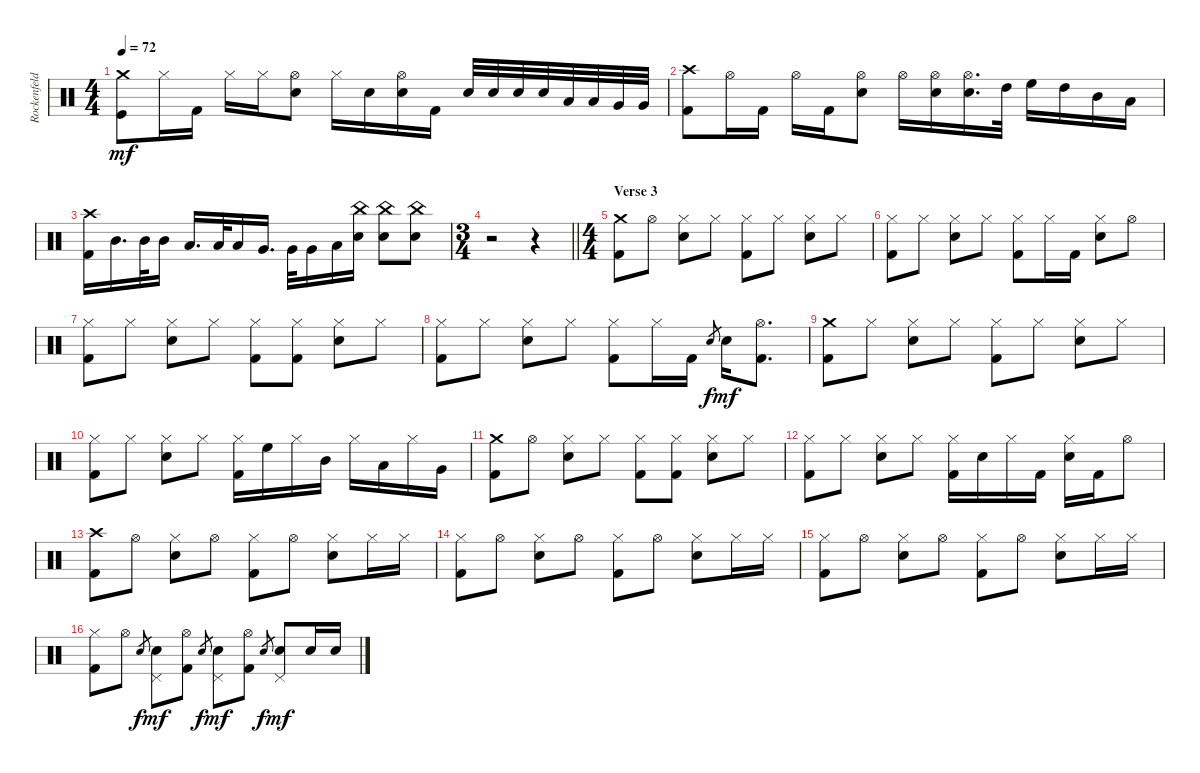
\track ("Rockenfeld" "Rockenfeld") {instrument percussion}
\staff {score}
\articulation defaults
\ts (4 4)
\tempo 72
\clef neutral
\ks c
("Crash medium (hit)" "Kick (hit)").8{dy mf} "Hi-Hat (closed)".16 "Kick (hit) 2".16 "Hi-Hat (closed)".16 "Hi-Hat (closed)".16 ("Hi-Hat (open)" "Electric Snare (hit)").8 "Hi-Hat (closed)".16 "Electric Snare (hit)".16 ("Hi-Hat (open)" "Electric Snare (hit)").16 "Kick (hit) 2".16 "Electric Snare (hit)".32 "Electric Snare (hit)".32 "Electric Snare (hit)".32 "Electric Snare (hit)".32 "Low Tom (hit)".32 "Low Tom (hit)".32 "Very Low Tom (hit)".32 "Very Low Tom (hit)".32 |
("Crash high (hit)" "Kick (hit) 2").8 "Hi-Hat (open)".16 "Kick (hit) 2".16 "Hi-Hat (open)".16 "Kick (hit) 2".16 ("Hi-Hat (open)" "Electric Snare (hit)").8 "Hi-Hat (open)".16 ("Hi-Hat (open)" "Electric Snare (hit)").16 ("Hi-Hat (open)" "Electric Snare (hit)").16{d} "High Tom (hit)".32 "High Floor Tom (hit)".16 "High Tom (hit)".16 "Mid Tom (hit)".16 "Low Tom (hit)".16 |
("Crash high (hit)" "Kick (hit) 2").16 "Mid Tom (hit)".16{d} "Mid Tom (hit)".32 "Mid Tom (hit)".16 "Low Tom (hit)".16{d} "Low Tom (hit)".32 "Low Tom (hit)".16 "Very Low Tom (hit)".16{d} "Very Low Tom (hit)".32 "Very Low Tom (hit)".16 "Low Floor Tom (hit)".16 ("China (hit)" "Electric Snare (hit)").16 ("China (hit)" "Electric Snare (hit)").8 ("China (hit)" "Electric Snare (hit)").8 |
\ts (3 4)
\barLineRight lightlight
r.2 r.4 |
\ts (4 4)
\section ("" "Verse 3")
("Crash medium (hit)" "Kick (hit) 2").8 "Hi-Hat (open)".8 ("Hi-Hat (closed)" "Electric Snare (hit)").8 "Hi-Hat (closed)".8 ("Hi-Hat (closed)" "Kick (hit) 2").8 "Hi-Hat (closed)".8 ("Hi-Hat (closed)" "Electric Snare (hit)").8 "Hi-Hat (closed)".8 |
("Hi-Hat (closed)" "Kick (hit) 2").8 "Hi-Hat (closed)".8 ("Hi-Hat (closed)" "Electric Snare (hit)").8 "Hi-Hat (closed)".8 ("Hi-Hat (closed)" "Kick (hit) 2").8 "Hi-Hat (closed)".16 "Kick (hit) 2".16 ("Hi-Hat (closed)" "Electric Snare (hit)").8 "Hi-Hat (open)".8 |
("Hi-Hat (closed)" "Kick (hit) 2").8 "Hi-Hat (closed)".8 ("Hi-Hat (closed)" "Electric Snare (hit)").8 "Hi-Hat (closed)".8 ("Hi-Hat (closed)" "Kick (hit) 2").8 ("Hi-Hat (closed)" "Kick (hit) 2").8 ("Hi-Hat (closed)" "Electric Snare (hit)").8 "Hi-Hat (closed)".8 |
("Hi-Hat (closed)" "Kick (hit) 2").8 "Hi-Hat (closed)".8 ("Hi-Hat (closed)" "Electric Snare (hit)").8 "Hi-Hat (closed)".8 ("Hi-Hat (closed)" "Kick (hit) 2").8 "Hi-Hat (closed)".16 "Kick (hit) 2".16 "Electric Snare (hit)".8{gr dy f} "Electric Snare (hit)".16{dy mf} ("Hi-Hat (open)" "Kick (hit) 2").8{d} |
("Crash medium (hit)" "Kick (hit) 2").8 "Hi-Hat (closed)".8 ("Hi-Hat (closed)" "Electric Snare (hit)").8 "Hi-Hat (closed)".8 ("Hi-Hat (closed)" "Kick (hit) 2").8 "Hi-Hat (closed)".8 ("Hi-Hat (closed)" "Electric Snare (hit)").8 "Hi-Hat (closed)".8 |
("Hi-Hat (closed)" "Kick (hit) 2").8 "Hi-Hat (closed)".8 ("Hi-Hat (closed)" "Electric Snare (hit)").8 "Hi-Hat (closed)".8 ("Hi-Hat (closed)" "Kick (hit) 2").16 "High Floor Tom (hit)".16 "Hi-Hat (closed)".16 "Mid Tom (hit)".16 "Hi-Hat (closed)".16 "Low Tom (hit)".16 "Hi-Hat (closed)".16 "Very Low Tom (hit)".16 |
("Crash medium (hit)" "Kick (hit) 2").8 "Hi-Hat (open)".8 ("Hi-Hat (closed)" "Electric Snare (hit)").8 "Hi-Hat (closed)".8 ("Hi-Hat (closed)" "Kick (hit) 2").8 ("Hi-Hat (closed)" "Kick (hit) 2").8 ("Hi-Hat (closed)" "Electric Snare (hit)").8 "Hi-Hat (closed)".8 |
("Hi-Hat (closed)" "Kick (hit) 2").8 "Hi-Hat (closed)".8 ("Hi-Hat (closed)" "Electric Snare (hit)").8 "Hi-Hat (closed)".8 ("Hi-Hat (closed)" "Kick (hit) 2").16 "Electric Snare (hit)".16 "Hi-Hat (closed)".16 "Kick (hit) 2".16 ("Hi-Hat (closed)" "Electric Snare (hit)").16 "Kick (hit) 2".16 "Hi-Hat (open)".8 |
("Crash high (hit)" "Kick (hit) 2").8 "Hi-Hat (open)".8 ("Hi-Hat (closed)" "Electric Snare (hit)").8 "Hi-Hat (open)".8 ("Hi-Hat (closed)" "Kick (hit) 2").8 "Hi-Hat (open)".8 ("Hi-Hat (closed)" "Electric Snare (hit)").8 "Hi-Hat (closed)".16 "Hi-Hat (closed)".16 |
("Hi-Hat (closed)" "Kick (hit) 2").8 "Hi-Hat (open)".8 ("Hi-Hat (closed)" "Electric Snare (hit)").8 "Hi-Hat (open)".8 ("Hi-Hat (closed)" "Kick (hit) 2").8 "Hi-Hat (open)".8 ("Hi-Hat (closed)" "Electric Snare (hit)").8 "Hi-Hat (closed)".16 "Hi-Hat (closed)".16 |
("Hi-Hat (closed)" "Kick (hit) 2").8 "Hi-Hat (open)".8 ("Hi-Hat (closed)" "Electric Snare (hit)").8 "Hi-Hat (open)".8 ("Hi-Hat (closed)" "Kick (hit) 2").8 "Hi-Hat (open)".8 ("Hi-Hat (closed)" "Electric Snare (hit)").8 "Hi-Hat (closed)".16 "Hi-Hat (closed)".16 |
("Hi-Hat (closed)" "Kick (hit) 2").8 "Hi-Hat (open)".8 "Electric Snare (hit)".8{gr dy f} ("Electric Snare (hit)" "Pedal Hi-Hat (hit)").8{dy mf} ("Hi-Hat (open)" "Kick (hit) 2").8 "Electric Snare (hit)".8{gr dy f} ("Electric Snare (hit)" "Pedal Hi-Hat (hit)").8{dy mf} ("Hi-Hat (open)" "Kick (hit) 2").8 "Electric Snare (hit)".8{gr dy f} ("Electric Snare (hit)" "Pedal Hi-Hat (hit)").8{dy mf} "Electric Snare (hit)".16 "Electric Snare (hit)".16
